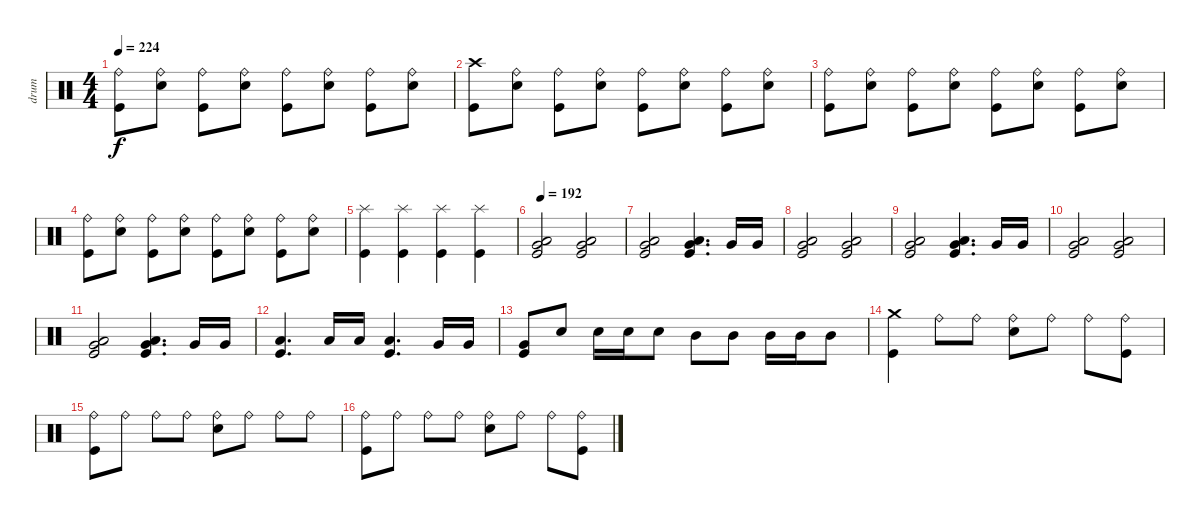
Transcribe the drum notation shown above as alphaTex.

\track ("drum" "drum") {instrument percussion}
\staff {score}
\articulation defaults
\ts (4 4)
\tempo 224
\clef neutral
\ks c
("Kick (hit)" "Ride (bell)").8{dy f} ("Electric Snare (hit)" "Ride (bell)").8 ("Kick (hit)" "Ride (bell)").8 ("Electric Snare (hit)" "Ride (bell)").8 ("Kick (hit)" "Ride (bell)").8 ("Electric Snare (hit)" "Ride (bell)").8 ("Kick (hit)" "Ride (bell)").8 ("Electric Snare (hit)" "Ride (bell)").8 |
("Kick (hit)" "Crash high (hit)").8 ("Electric Snare (hit)" "Ride (bell)").8 ("Kick (hit)" "Ride (bell)").8 ("Electric Snare (hit)" "Ride (bell)").8 ("Kick (hit)" "Ride (bell)").8 ("Electric Snare (hit)" "Ride (bell)").8 ("Kick (hit)" "Ride (bell)").8 ("Electric Snare (hit)" "Ride (bell)").8 |
("Kick (hit)" "Ride (bell)").8 ("Electric Snare (hit)" "Ride (bell)").8 ("Kick (hit)" "Ride (bell)").8 ("Electric Snare (hit)" "Ride (bell)").8 ("Kick (hit)" "Ride (bell)").8 ("Electric Snare (hit)" "Ride (bell)").8 ("Kick (hit)" "Ride (bell)").8 ("Electric Snare (hit)" "Ride (bell)").8 |
("Kick (hit)" "Ride (bell)").8 ("Electric Snare (hit)" "Ride (bell)").8 ("Kick (hit)" "Ride (bell)").8 ("Electric Snare (hit)" "Ride (bell)").8 ("Kick (hit)" "Ride (bell)").8 ("Electric Snare (hit)" "Ride (bell)").8 ("Kick (hit)" "Ride (bell)").8 ("Electric Snare (hit)" "Ride (bell)").8 |
("Kick (hit)" "Splash (hit)").4 ("Kick (hit)" "Splash (hit)").4 ("Kick (hit)" "Splash (hit)").4 ("Kick (hit)" "Splash (hit)").4 |
\tempo 192
("Kick (hit)" "Very Low Tom (hit)" "Low Floor Tom (hit)").2 ("Kick (hit)" "Very Low Tom (hit)" "Low Floor Tom (hit)").2 |
("Kick (hit)" "Very Low Tom (hit)" "Low Floor Tom (hit)").2 ("Kick (hit)" "Very Low Tom (hit)" "Low Floor Tom (hit)").4{d} "Very Low Tom (hit)".16 "Very Low Tom (hit)".16 |
("Kick (hit)" "Very Low Tom (hit)" "Low Floor Tom (hit)").2 ("Kick (hit)" "Very Low Tom (hit)" "Low Floor Tom (hit)").2 |
("Kick (hit)" "Very Low Tom (hit)" "Low Floor Tom (hit)").2 ("Kick (hit)" "Very Low Tom (hit)" "Low Floor Tom (hit)").4{d} "Very Low Tom (hit)".16 "Very Low Tom (hit)".16 |
("Kick (hit)" "Very Low Tom (hit)" "Low Floor Tom (hit)").2 ("Kick (hit)" "Very Low Tom (hit)" "Low Floor Tom (hit)").2 |
("Kick (hit)" "Very Low Tom (hit)" "Low Floor Tom (hit)").2 ("Kick (hit)" "Very Low Tom (hit)" "Low Floor Tom (hit)").4{d} "Very Low Tom (hit)".16 "Very Low Tom (hit)".16 |
("Kick (hit)" "Low Floor Tom (hit)").4{d} "Low Tom (hit)".16 "Low Tom (hit)".16 ("Kick (hit)" "Low Tom (hit)").4{d} "Very Low Tom (hit)".16 "Very Low Tom (hit)".16 |
("Kick (hit)" "Very Low Tom (hit)").8 "Electric Snare (hit)".8 "Electric Snare (hit)".16 "Electric Snare (hit)".16 "Electric Snare (hit)".8 "Mid Tom (hit)".8 "Mid Tom (hit)".8 "Mid Tom (hit)".16 "Mid Tom (hit)".16 "Mid Tom (hit)".8 |
("Kick (hit)" "Crash medium (hit)").4 "Ride (bell)".8 "Ride (bell)".8 ("Electric Snare (hit)" "Ride (bell)").8 "Ride (bell)".8 "Ride (bell)".8 ("Kick (hit)" "Ride (bell)").8 |
("Kick (hit)" "Ride (bell)").8 "Ride (bell)".8 "Ride (bell)".8 "Ride (bell)".8 ("Electric Snare (hit)" "Ride (bell)").8 "Ride (bell)".8 "Ride (bell)".8 "Ride (bell)".8 |
("Kick (hit)" "Ride (bell)").8 "Ride (bell)".8 "Ride (bell)".8 "Ride (bell)".8 ("Electric Snare (hit)" "Ride (bell)").8 "Ride (bell)".8 "Ride (bell)".8 ("Kick (hit)" "Ride (bell)").8
